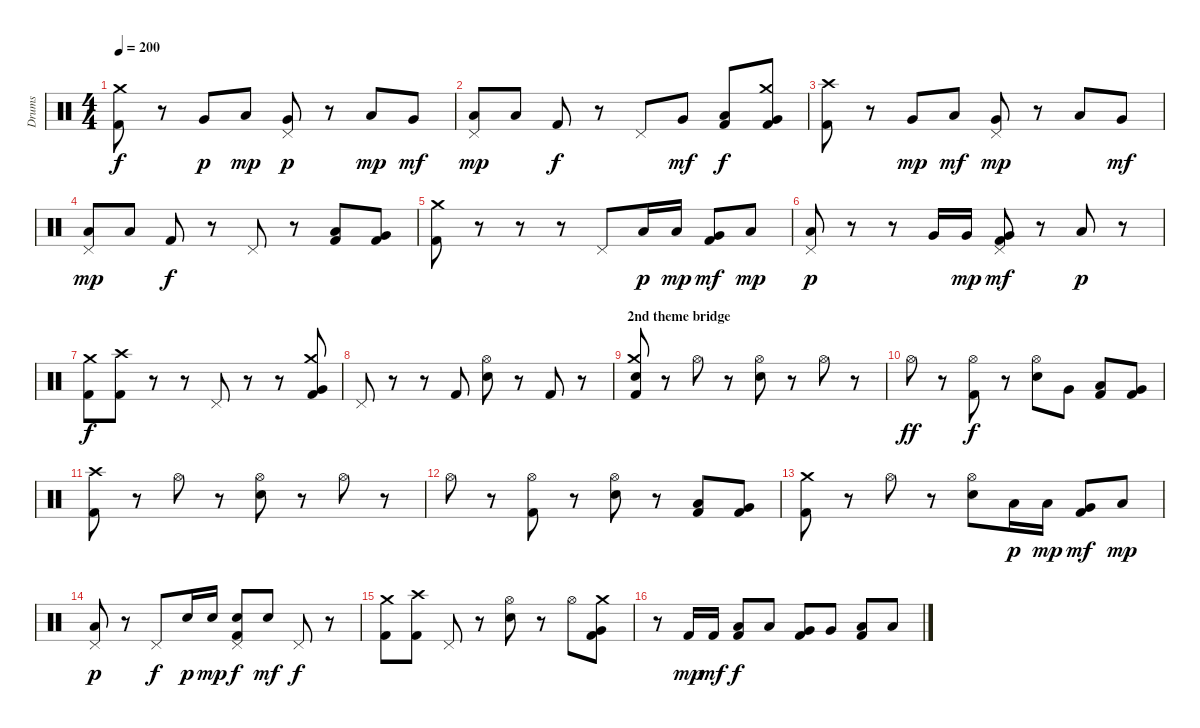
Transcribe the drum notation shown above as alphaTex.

\track ("Drums" "Drums") {instrument percussion}
\staff {score}
\articulation defaults
\ts (4 4)
\tempo 200
\clef neutral
\ks c
("Kick (hit) 2" "Crash medium (hit)").8{dy f} r.8 "Very Low Tom (hit)".8{dy p} "Low Tom (hit)".8{dy mp} ("Very Low Tom (hit)" "Pedal Hi-Hat (hit)").8{dy p} r.8 "Low Tom (hit)".8{dy mp} "Very Low Tom (hit)".8{dy mf} |
("Low Tom (hit)" "Pedal Hi-Hat (hit)").8{dy mp} "Low Floor Tom (hit)".8 "Kick (hit) 2".8{dy f} r.8 "Pedal Hi-Hat (hit)".8 "Very Low Tom (hit)".8{dy mf} ("Kick (hit) 2" "Low Tom (hit)").8{dy f} ("Kick (hit) 2" "Very Low Tom (hit)" "Crash medium (hit)").8 |
("Kick (hit) 2" "Crash high (hit)").8 r.8 "Very Low Tom (hit)".8{dy mp} "Low Tom (hit)".8{dy mf} ("Very Low Tom (hit)" "Pedal Hi-Hat (hit)").8{dy mp} r.8 "Low Tom (hit)".8 "Very Low Tom (hit)".8{dy mf} |
("Low Tom (hit)" "Pedal Hi-Hat (hit)").8{dy mp} "Low Floor Tom (hit)".8 "Kick (hit) 2".8{dy f} r.8 "Pedal Hi-Hat (hit)".8 r.8 ("Kick (hit) 2" "Low Tom (hit)").8 ("Kick (hit) 2" "Very Low Tom (hit)").8 |
("Kick (hit) 2" "Crash medium (hit)").8 r.8 r.8 r.8 "Pedal Hi-Hat (hit)".8 "Low Tom (hit)".16{dy p} "Low Tom (hit)".16{dy mp} ("Kick (hit) 2" "Very Low Tom (hit)").8{dy mf} "Low Floor Tom (hit)".8{dy mp} |
("Pedal Hi-Hat (hit)" "Low Floor Tom (hit)").8{dy p} r.8 r.8 "Very Low Tom (hit)".16 "Very Low Tom (hit)".16{dy mp} ("Kick (hit) 2" "Pedal Hi-Hat (hit)" "Very Low Tom (hit)").8{dy mf} r.8 "Low Floor Tom (hit)".8{dy p} r.8 |
("Kick (hit) 2" "Crash medium (hit)").8{dy f} ("Kick (hit) 2" "Crash high (hit)").8 r.8 r.8 "Pedal Hi-Hat (hit)".8 r.8 r.8 ("Kick (hit) 2" "Very Low Tom (hit)" "Crash medium (hit)").8 |
"Pedal Hi-Hat (hit)".8 r.8 r.8 "Kick (hit) 2".8 ("Electric Snare (hit)" "Hi-Hat (open)").8 r.8 "Kick (hit) 2".8 r.8 |
\section ("" "2nd theme bridge")
("Kick (hit) 2" "Electric Snare (hit)" "Crash medium (hit)").8 r.8 "Hi-Hat (open)".8 r.8 ("Electric Snare (hit)" "Hi-Hat (open)").8 r.8 "Hi-Hat (open)".8 r.8 |
"Hi-Hat (open)".8{dy ff} r.8 ("Kick (hit) 2" "Hi-Hat (open)").8{dy f} r.8 ("Electric Snare (hit)" "Hi-Hat (open)").8 "Very Low Tom (hit)".8 ("Kick (hit) 2" "Low Tom (hit)").8 ("Kick (hit) 2" "Very Low Tom (hit)").8 |
("Kick (hit) 2" "Crash high (hit)").8 r.8 "Hi-Hat (open)".8 r.8 ("Electric Snare (hit)" "Hi-Hat (open)").8 r.8 "Hi-Hat (open)".8 r.8 |
"Hi-Hat (open)".8 r.8 ("Kick (hit) 2" "Hi-Hat (open)").8 r.8 ("Electric Snare (hit)" "Hi-Hat (open)").8 r.8 ("Kick (hit) 2" "Low Tom (hit)").8 ("Kick (hit) 2" "Very Low Tom (hit)").8 |
("Kick (hit) 2" "Crash medium (hit)").8 r.8 "Hi-Hat (open)".8 r.8 ("Electric Snare (hit)" "Hi-Hat (open)").8 "Low Tom (hit)".16{dy p} "Low Tom (hit)".16{dy mp} ("Kick (hit) 2" "Very Low Tom (hit)").8{dy mf} "Low Floor Tom (hit)".8{dy mp} |
("Pedal Hi-Hat (hit)" "Low Floor Tom (hit)").8{dy p} r.8 "Pedal Hi-Hat (hit)".8{dy f} "Electric Snare (hit)".16{dy p} "Electric Snare (hit)".16{dy mp} ("Kick (hit) 2" "Pedal Hi-Hat (hit)" "Electric Snare (hit)").8{dy f} "Electric Snare (hit)".8{dy mf} "Pedal Hi-Hat (hit)".8{dy f} r.8 |
("Kick (hit) 2" "Crash medium (hit)").8 ("Kick (hit) 2" "Crash high (hit)").8 "Pedal Hi-Hat (hit)".8 r.8 ("Electric Snare (hit)" "Hi-Hat (open)").8 r.8 "Hi-Hat (open)".8 ("Kick (hit) 2" "Very Low Tom (hit)" "Crash medium (hit)").8 |
r.8 "Kick (hit) 2".16{dy mp} "Kick (hit) 2".16{dy mf} ("Kick (hit) 2" "Low Floor Tom (hit)").8{dy f} "Low Floor Tom (hit)".8 ("Kick (hit) 2" "Very Low Tom (hit)").8 "Very Low Tom (hit)".8 ("Kick (hit) 2" "Low Tom (hit)").8 "Low Tom (hit)".8
